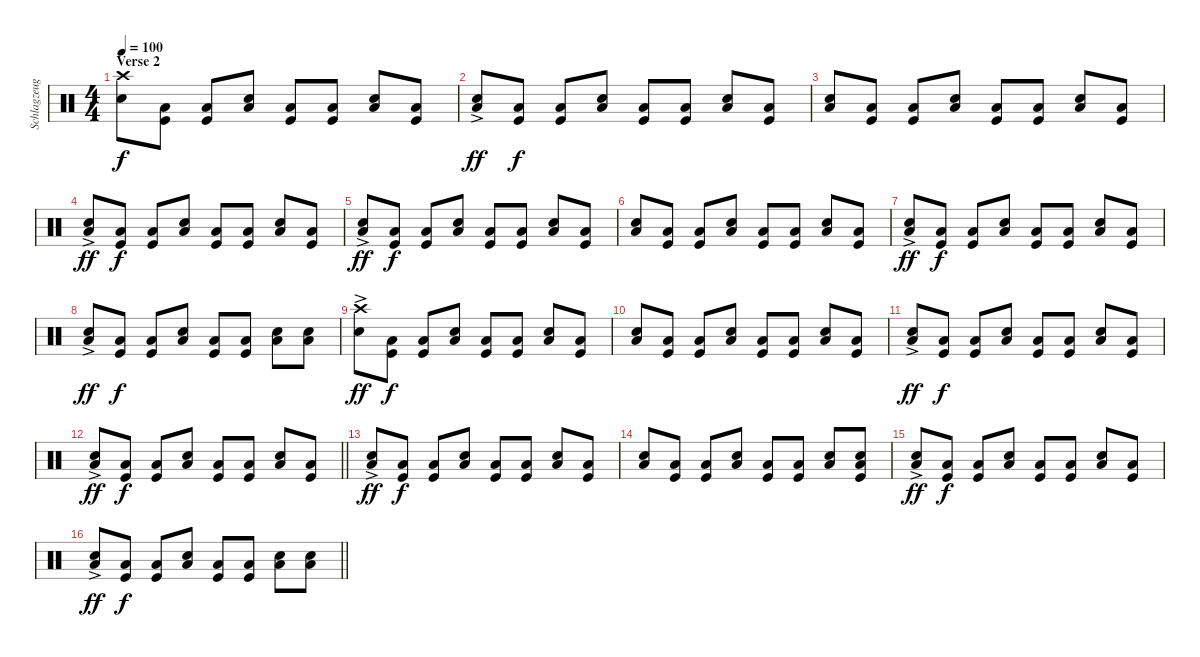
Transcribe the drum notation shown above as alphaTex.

\track ("Schlagzeug" "Schlagzeug") {instrument percussion}
\staff {score}
\articulation defaults
\ts (4 4)
\section ("" "Verse 2")
\tempo 100
\clef neutral
\ks c
("Crash high (hit)" "Snare (hit) 2").8{dy f} ("Low Floor Tom (hit)" "Kick (hit)").8{volume 5} ("Low Floor Tom (hit)" "Kick (hit)").8{volume 10} ("Snare (hit) 2" "Low Floor Tom (hit)").8 ("Low Floor Tom (hit)" "Kick (hit)").8 ("Low Floor Tom (hit)" "Kick (hit)").8 ("Snare (hit) 2" "Low Floor Tom (hit)").8 ("Low Floor Tom (hit)" "Kick (hit)").8 |
("Snare (hit) 2"{ac} "Low Floor Tom (hit)"{ac}).8{dy ff} ("Low Floor Tom (hit)" "Kick (hit)").8{dy f} ("Low Floor Tom (hit)" "Kick (hit)").8 ("Snare (hit) 2" "Low Floor Tom (hit)").8 ("Low Floor Tom (hit)" "Kick (hit)").8 ("Low Floor Tom (hit)" "Kick (hit)").8 ("Snare (hit) 2" "Low Floor Tom (hit)").8 ("Low Floor Tom (hit)" "Kick (hit)").8 |
("Snare (hit) 2" "Low Floor Tom (hit)").8 ("Low Floor Tom (hit)" "Kick (hit)").8 ("Low Floor Tom (hit)" "Kick (hit)").8 ("Snare (hit) 2" "Low Floor Tom (hit)").8 ("Low Floor Tom (hit)" "Kick (hit)").8 ("Low Floor Tom (hit)" "Kick (hit)").8 ("Snare (hit) 2" "Low Floor Tom (hit)").8 ("Low Floor Tom (hit)" "Kick (hit)").8 |
("Snare (hit) 2"{ac} "Low Floor Tom (hit)"{ac}).8{dy ff} ("Low Floor Tom (hit)" "Kick (hit)").8{dy f} ("Low Floor Tom (hit)" "Kick (hit)").8 ("Snare (hit) 2" "Low Floor Tom (hit)").8 ("Low Floor Tom (hit)" "Kick (hit)").8 ("Low Floor Tom (hit)" "Kick (hit)").8 ("Snare (hit) 2" "Low Floor Tom (hit)").8 ("Low Floor Tom (hit)" "Kick (hit)").8 |
("Snare (hit) 2"{ac} "Low Floor Tom (hit)"{ac}).8{dy ff} ("Low Floor Tom (hit)" "Kick (hit)").8{dy f} ("Low Floor Tom (hit)" "Kick (hit)").8 ("Snare (hit) 2" "Low Floor Tom (hit)").8 ("Low Floor Tom (hit)" "Kick (hit)").8 ("Low Floor Tom (hit)" "Kick (hit)").8 ("Snare (hit) 2" "Low Floor Tom (hit)").8 ("Low Floor Tom (hit)" "Kick (hit)").8 |
("Snare (hit) 2" "Low Floor Tom (hit)").8 ("Low Floor Tom (hit)" "Kick (hit)").8 ("Low Floor Tom (hit)" "Kick (hit)").8 ("Snare (hit) 2" "Low Floor Tom (hit)").8 ("Low Floor Tom (hit)" "Kick (hit)").8 ("Low Floor Tom (hit)" "Kick (hit)").8 ("Snare (hit) 2" "Low Floor Tom (hit)").8 ("Low Floor Tom (hit)" "Kick (hit)").8 |
("Snare (hit) 2"{ac} "Low Floor Tom (hit)"{ac}).8{dy ff} ("Low Floor Tom (hit)" "Kick (hit)").8{dy f} ("Low Floor Tom (hit)" "Kick (hit)").8 ("Snare (hit) 2" "Low Floor Tom (hit)").8 ("Low Floor Tom (hit)" "Kick (hit)").8 ("Low Floor Tom (hit)" "Kick (hit)").8 ("Snare (hit) 2" "Low Floor Tom (hit)").8 ("Low Floor Tom (hit)" "Kick (hit)").8 |
("Snare (hit) 2"{ac} "Low Floor Tom (hit)"{ac}).8{dy ff} ("Low Floor Tom (hit)" "Kick (hit)").8{dy f} ("Low Floor Tom (hit)" "Kick (hit)").8 ("Snare (hit) 2" "Low Floor Tom (hit)").8 ("Low Floor Tom (hit)" "Kick (hit)").8 ("Low Floor Tom (hit)" "Kick (hit)").8 ("Snare (hit) 2" "Low Floor Tom (hit)").8 ("Snare (hit) 2" "Low Floor Tom (hit)").8 |
("Crash high (hit)" "Snare (hit) 2"{ac}).8{dy ff} ("Low Floor Tom (hit)" "Kick (hit)").8{dy f} ("Low Floor Tom (hit)" "Kick (hit)").8 ("Snare (hit) 2" "Low Floor Tom (hit)").8 ("Low Floor Tom (hit)" "Kick (hit)").8 ("Low Floor Tom (hit)" "Kick (hit)").8 ("Snare (hit) 2" "Low Floor Tom (hit)").8 ("Low Floor Tom (hit)" "Kick (hit)").8 |
("Snare (hit) 2" "Low Floor Tom (hit)").8 ("Low Floor Tom (hit)" "Kick (hit)").8 ("Low Floor Tom (hit)" "Kick (hit)").8 ("Snare (hit) 2" "Low Floor Tom (hit)").8 ("Low Floor Tom (hit)" "Kick (hit)").8 ("Low Floor Tom (hit)" "Kick (hit)").8 ("Snare (hit) 2" "Low Floor Tom (hit)").8 ("Low Floor Tom (hit)" "Kick (hit)").8 |
("Snare (hit) 2"{ac} "Low Floor Tom (hit)"{ac}).8{dy ff} ("Low Floor Tom (hit)" "Kick (hit)").8{dy f} ("Low Floor Tom (hit)" "Kick (hit)").8 ("Snare (hit) 2" "Low Floor Tom (hit)").8 ("Low Floor Tom (hit)" "Kick (hit)").8 ("Low Floor Tom (hit)" "Kick (hit)").8 ("Snare (hit) 2" "Low Floor Tom (hit)").8 ("Low Floor Tom (hit)" "Kick (hit)").8 |
\barLineRight lightlight
("Snare (hit) 2"{ac} "Low Floor Tom (hit)"{ac}).8{dy ff} ("Low Floor Tom (hit)" "Kick (hit)").8{dy f} ("Low Floor Tom (hit)" "Kick (hit)").8 ("Snare (hit) 2" "Low Floor Tom (hit)").8 ("Low Floor Tom (hit)" "Kick (hit)").8 ("Low Floor Tom (hit)" "Kick (hit)").8 ("Snare (hit) 2" "Low Floor Tom (hit)").8 ("Low Floor Tom (hit)" "Kick (hit)").8 |
("Snare (hit) 2"{ac} "Low Floor Tom (hit)").8{dy ff} ("Low Floor Tom (hit)" "Kick (hit)").8{dy f} ("Low Floor Tom (hit)" "Kick (hit)").8 ("Snare (hit) 2" "Low Floor Tom (hit)").8 ("Low Floor Tom (hit)" "Kick (hit)").8 ("Low Floor Tom (hit)" "Kick (hit)").8 ("Snare (hit) 2" "Low Floor Tom (hit)").8 ("Low Floor Tom (hit)" "Kick (hit)").8 |
("Snare (hit) 2" "Low Floor Tom (hit)").8 ("Low Floor Tom (hit)" "Kick (hit)").8 ("Low Floor Tom (hit)" "Kick (hit)").8 ("Snare (hit) 2" "Low Floor Tom (hit)").8 ("Low Floor Tom (hit)" "Kick (hit)").8 ("Low Floor Tom (hit)" "Kick (hit)").8 ("Snare (hit) 2" "Low Floor Tom (hit)").8 ("Snare (hit) 2" "Low Floor Tom (hit)" "Kick (hit)").8 |
("Snare (hit) 2"{ac} "Low Floor Tom (hit)"{ac}).8{dy ff} ("Low Floor Tom (hit)" "Kick (hit)").8{dy f} ("Low Floor Tom (hit)" "Kick (hit)").8 ("Snare (hit) 2" "Low Floor Tom (hit)").8 ("Low Floor Tom (hit)" "Kick (hit)").8 ("Low Floor Tom (hit)" "Kick (hit)").8 ("Snare (hit) 2" "Low Floor Tom (hit)").8 ("Low Floor Tom (hit)" "Kick (hit)").8 |
\barLineRight lightlight
("Snare (hit) 2"{ac} "Low Floor Tom (hit)"{ac}).8{dy ff} ("Low Floor Tom (hit)" "Kick (hit)").8{dy f} ("Low Floor Tom (hit)" "Kick (hit)").8 ("Snare (hit) 2" "Low Floor Tom (hit)").8 ("Low Floor Tom (hit)" "Kick (hit)").8 ("Low Floor Tom (hit)" "Kick (hit)").8 ("Snare (hit) 2" "Low Floor Tom (hit)").8 ("Snare (hit) 2" "Low Floor Tom (hit)").8
